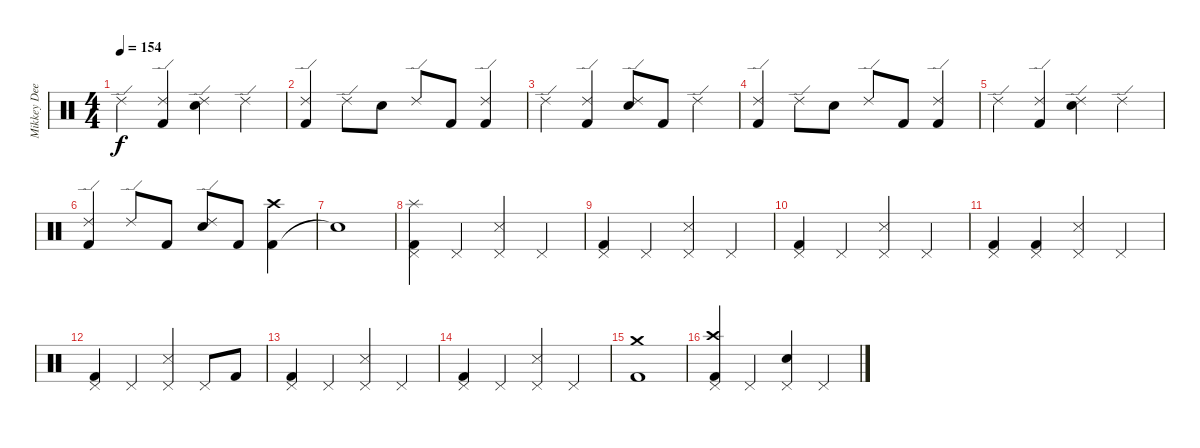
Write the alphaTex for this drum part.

\track ("Mikkey Dee" "Mikkey Dee") {instrument percussion}
\staff {score}
\articulation defaults
\ts (4 4)
\tempo 154
\clef neutral
\ks c "Ride (edge) 2".4{dy f}
("Kick (hit) 2" "Ride (edge) 2").4 ("Snare (hit) 2" "Ride (edge) 2").4 "Ride (edge) 2".4 |
("Kick (hit) 2" "Ride (edge) 2").4 "Ride (edge) 2".8 "Snare (hit) 2".8 "Ride (edge) 2".8 "Kick (hit) 2".8 ("Kick (hit) 2" "Ride (edge) 2").4 |
"Ride (edge) 2".4 ("Kick (hit) 2" "Ride (edge) 2").4 ("Snare (hit) 2" "Ride (edge) 2").8 "Kick (hit) 2".8 "Ride (edge) 2".4 |
("Kick (hit) 2" "Ride (edge) 2").4 "Ride (edge) 2".8 "Snare (hit) 2".8 "Ride (edge) 2".8 "Kick (hit) 2".8 ("Kick (hit) 2" "Ride (edge) 2").4 |
"Ride (edge) 2".4 ("Kick (hit) 2" "Ride (edge) 2").4 ("Snare (hit) 2" "Ride (edge) 2").4 "Ride (edge) 2".4 |
("Kick (hit) 2" "Ride (edge) 2").4 "Ride (edge) 2".8 "Kick (hit) 2".8 ("Snare (hit) 2" "Ride (edge) 2").8 "Kick (hit) 2".8 ("Kick (hit) 2" "Crash high (hit)").4 |
"Snare (hit)"{t}.1 |
("Kick (hit) 2" "Pedal Hi-Hat (hit)" "Splash (hit)").4 "Pedal Hi-Hat (hit)".4 ("Snare (side stick) 3" "Pedal Hi-Hat (hit)").4 "Pedal Hi-Hat (hit)".4 |
("Kick (hit) 2" "Pedal Hi-Hat (hit)").4 "Pedal Hi-Hat (hit)".4 ("Snare (side stick) 3" "Pedal Hi-Hat (hit)").4 "Pedal Hi-Hat (hit)".4 |
("Kick (hit) 2" "Pedal Hi-Hat (hit)").4 "Pedal Hi-Hat (hit)".4 ("Snare (side stick) 3" "Pedal Hi-Hat (hit)").4 "Pedal Hi-Hat (hit)".4 |
("Kick (hit) 2" "Pedal Hi-Hat (hit)").4 ("Kick (hit) 2" "Pedal Hi-Hat (hit)").4 ("Snare (side stick) 3" "Pedal Hi-Hat (hit)").4 "Pedal Hi-Hat (hit)".4 |
("Kick (hit) 2" "Pedal Hi-Hat (hit)").4 "Pedal Hi-Hat (hit)".4 ("Snare (side stick) 3" "Pedal Hi-Hat (hit)").4 "Pedal Hi-Hat (hit)".8 "Kick (hit) 2".8 |
("Kick (hit) 2" "Pedal Hi-Hat (hit)").4 "Pedal Hi-Hat (hit)".4 ("Snare (side stick) 3" "Pedal Hi-Hat (hit)").4 "Pedal Hi-Hat (hit)".4 |
("Kick (hit) 2" "Pedal Hi-Hat (hit)").4 "Pedal Hi-Hat (hit)".4 ("Snare (side stick) 3" "Pedal Hi-Hat (hit)").4 "Pedal Hi-Hat (hit)".4 |
("Kick (hit) 2" "Crash medium (hit)").1 |
("Kick (hit) 2" "Pedal Hi-Hat (hit)" "Crash high (hit)").4 "Pedal Hi-Hat (hit)".4 ("Snare (hit) 2" "Pedal Hi-Hat (hit)").4 "Pedal Hi-Hat (hit)".4
